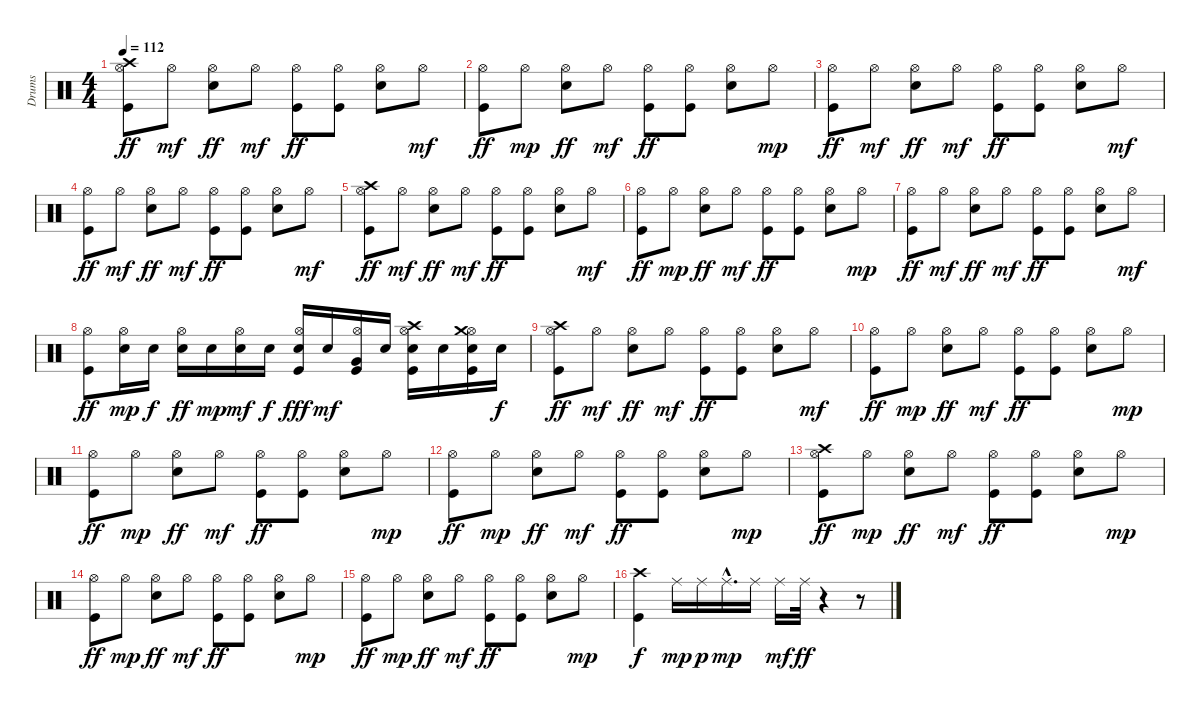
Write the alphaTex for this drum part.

\track ("Drums" "Drums") {instrument percussion}
\staff {score}
\articulation defaults
\ts (4 4)
\tempo 112
\clef neutral
\ks c
("Kick (hit)" "Hi-Hat (open)" "Crash high (hit)").8{dy ff} "Hi-Hat (open)".8{dy mf} ("Electric Snare (hit)" "Hi-Hat (open)").8{dy ff} "Hi-Hat (open)".8{dy mf} ("Kick (hit)" "Hi-Hat (open)").8{dy ff} ("Kick (hit)" "Hi-Hat (open)").8 ("Electric Snare (hit)" "Hi-Hat (open)").8 "Hi-Hat (open)".8{dy mf} |
("Kick (hit)" "Hi-Hat (open)").8{dy ff} "Hi-Hat (open)".8{dy mp} ("Electric Snare (hit)" "Hi-Hat (open)").8{dy ff} "Hi-Hat (open)".8{dy mf} ("Kick (hit)" "Hi-Hat (open)").8{dy ff} ("Kick (hit)" "Hi-Hat (open)").8 ("Electric Snare (hit)" "Hi-Hat (open)").8 "Hi-Hat (open)".8{dy mp} |
("Kick (hit)" "Hi-Hat (open)").8{dy ff} "Hi-Hat (open)".8{dy mf} ("Electric Snare (hit)" "Hi-Hat (open)").8{dy ff} "Hi-Hat (open)".8{dy mf} ("Kick (hit)" "Hi-Hat (open)").8{dy ff} ("Kick (hit)" "Hi-Hat (open)").8 ("Electric Snare (hit)" "Hi-Hat (open)").8 "Hi-Hat (open)".8{dy mf} |
("Kick (hit)" "Hi-Hat (open)").8{dy ff} "Hi-Hat (open)".8{dy mf} ("Electric Snare (hit)" "Hi-Hat (open)").8{dy ff} "Hi-Hat (open)".8{dy mf} ("Kick (hit)" "Hi-Hat (open)").8{dy ff} ("Kick (hit)" "Hi-Hat (open)").8 ("Electric Snare (hit)" "Hi-Hat (open)").8 "Hi-Hat (open)".8{dy mf} |
("Kick (hit)" "Hi-Hat (open)" "Crash high (hit)").8{dy ff} "Hi-Hat (open)".8{dy mf} ("Electric Snare (hit)" "Hi-Hat (open)").8{dy ff} "Hi-Hat (open)".8{dy mf} ("Kick (hit)" "Hi-Hat (open)").8{dy ff} ("Kick (hit)" "Hi-Hat (open)").8 ("Electric Snare (hit)" "Hi-Hat (open)").8 "Hi-Hat (open)".8{dy mf} |
("Kick (hit)" "Hi-Hat (open)").8{dy ff} "Hi-Hat (open)".8{dy mp} ("Electric Snare (hit)" "Hi-Hat (open)").8{dy ff} "Hi-Hat (open)".8{dy mf} ("Kick (hit)" "Hi-Hat (open)").8{dy ff} ("Kick (hit)" "Hi-Hat (open)").8 ("Electric Snare (hit)" "Hi-Hat (open)").8 "Hi-Hat (open)".8{dy mp} |
("Kick (hit)" "Hi-Hat (open)").8{dy ff} "Hi-Hat (open)".8{dy mf} ("Electric Snare (hit)" "Hi-Hat (open)").8{dy ff} "Hi-Hat (open)".8{dy mf} ("Kick (hit)" "Hi-Hat (open)").8{dy ff} ("Kick (hit)" "Hi-Hat (open)").8 ("Electric Snare (hit)" "Hi-Hat (open)").8 "Hi-Hat (open)".8{dy mf} |
("Kick (hit)" "Hi-Hat (open)").8{dy ff} ("Electric Snare (hit)" "Hi-Hat (open)").16{dy mp} "Electric Snare (hit)".16{dy f} ("Electric Snare (hit)" "Hi-Hat (open)").16{dy ff} "Electric Snare (hit)".16{dy mp} ("Electric Snare (hit)" "Hi-Hat (open)").16{dy mf} "Electric Snare (hit)".16{dy f} ("Kick (hit)" "Electric Snare (hit)" "Hi-Hat (open)").16{dy fff} "Electric Snare (hit)".16{dy mf} ("Kick (hit)" "Very Low Tom (hit)" "Hi-Hat (open)").16 "Electric Snare (hit)".16 ("Kick (hit)" "Electric Snare (hit)" "Hi-Hat (open)" "Crash high (hit)").16 "Electric Snare (hit)".16 ("Kick (hit)" "Electric Snare (hit)" "Hi-Hat (open)" "Crash medium (hit)").16 "Electric Snare (hit)".16{dy f} |
("Kick (hit)" "Hi-Hat (open)" "Crash high (hit)").8{dy ff} "Hi-Hat (open)".8{dy mf} ("Electric Snare (hit)" "Hi-Hat (open)").8{dy ff} "Hi-Hat (open)".8{dy mf} ("Kick (hit)" "Hi-Hat (open)").8{dy ff} ("Kick (hit)" "Hi-Hat (open)").8 ("Electric Snare (hit)" "Hi-Hat (open)").8 "Hi-Hat (open)".8{dy mf} |
("Kick (hit)" "Hi-Hat (open)").8{dy ff} "Hi-Hat (open)".8{dy mp} ("Electric Snare (hit)" "Hi-Hat (open)").8{dy ff} "Hi-Hat (open)".8{dy mf} ("Kick (hit)" "Hi-Hat (open)").8{dy ff} ("Kick (hit)" "Hi-Hat (open)").8 ("Electric Snare (hit)" "Hi-Hat (open)").8 "Hi-Hat (open)".8{dy mp} |
("Kick (hit)" "Hi-Hat (open)").8{dy ff} "Hi-Hat (open)".8{dy mp} ("Electric Snare (hit)" "Hi-Hat (open)").8{dy ff} "Hi-Hat (open)".8{dy mf} ("Kick (hit)" "Hi-Hat (open)").8{dy ff} ("Kick (hit)" "Hi-Hat (open)").8 ("Electric Snare (hit)" "Hi-Hat (open)").8 "Hi-Hat (open)".8{dy mp} |
("Kick (hit)" "Hi-Hat (open)").8{dy ff} "Hi-Hat (open)".8{dy mp} ("Electric Snare (hit)" "Hi-Hat (open)").8{dy ff} "Hi-Hat (open)".8{dy mf} ("Kick (hit)" "Hi-Hat (open)").8{dy ff} ("Kick (hit)" "Hi-Hat (open)").8 ("Electric Snare (hit)" "Hi-Hat (open)").8 "Hi-Hat (open)".8{dy mp} |
("Kick (hit)" "Hi-Hat (open)" "Crash high (hit)").8{dy ff} "Hi-Hat (open)".8{dy mp} ("Electric Snare (hit)" "Hi-Hat (open)").8{dy ff} "Hi-Hat (open)".8{dy mf} ("Kick (hit)" "Hi-Hat (open)").8{dy ff} ("Kick (hit)" "Hi-Hat (open)").8 ("Electric Snare (hit)" "Hi-Hat (open)").8 "Hi-Hat (open)".8{dy mp} |
("Kick (hit)" "Hi-Hat (open)").8{dy ff} "Hi-Hat (open)".8{dy mp} ("Electric Snare (hit)" "Hi-Hat (open)").8{dy ff} "Hi-Hat (open)".8{dy mf} ("Kick (hit)" "Hi-Hat (open)").8{dy ff} ("Kick (hit)" "Hi-Hat (open)").8 ("Electric Snare (hit)" "Hi-Hat (open)").8 "Hi-Hat (open)".8{dy mp} |
("Kick (hit)" "Hi-Hat (open)").8{dy ff} "Hi-Hat (open)".8{dy mp} ("Electric Snare (hit)" "Hi-Hat (open)").8{dy ff} "Hi-Hat (open)".8{dy mf} ("Kick (hit)" "Hi-Hat (open)").8{dy ff} ("Kick (hit)" "Hi-Hat (open)").8 ("Electric Snare (hit)" "Hi-Hat (open)").8 "Hi-Hat (open)".8{dy mp} |
("Kick (hit)" "Crash high (hit)").4{dy f} "Ride (middle)".16{dy mp} "Ride (middle)".16{dy p} "Ride (middle)"{hac}.16{d dy mp} "Ride (middle)".16 "Ride (middle)".16{dy mf} "Ride (middle)".32{dy ff} r.4 r.8
